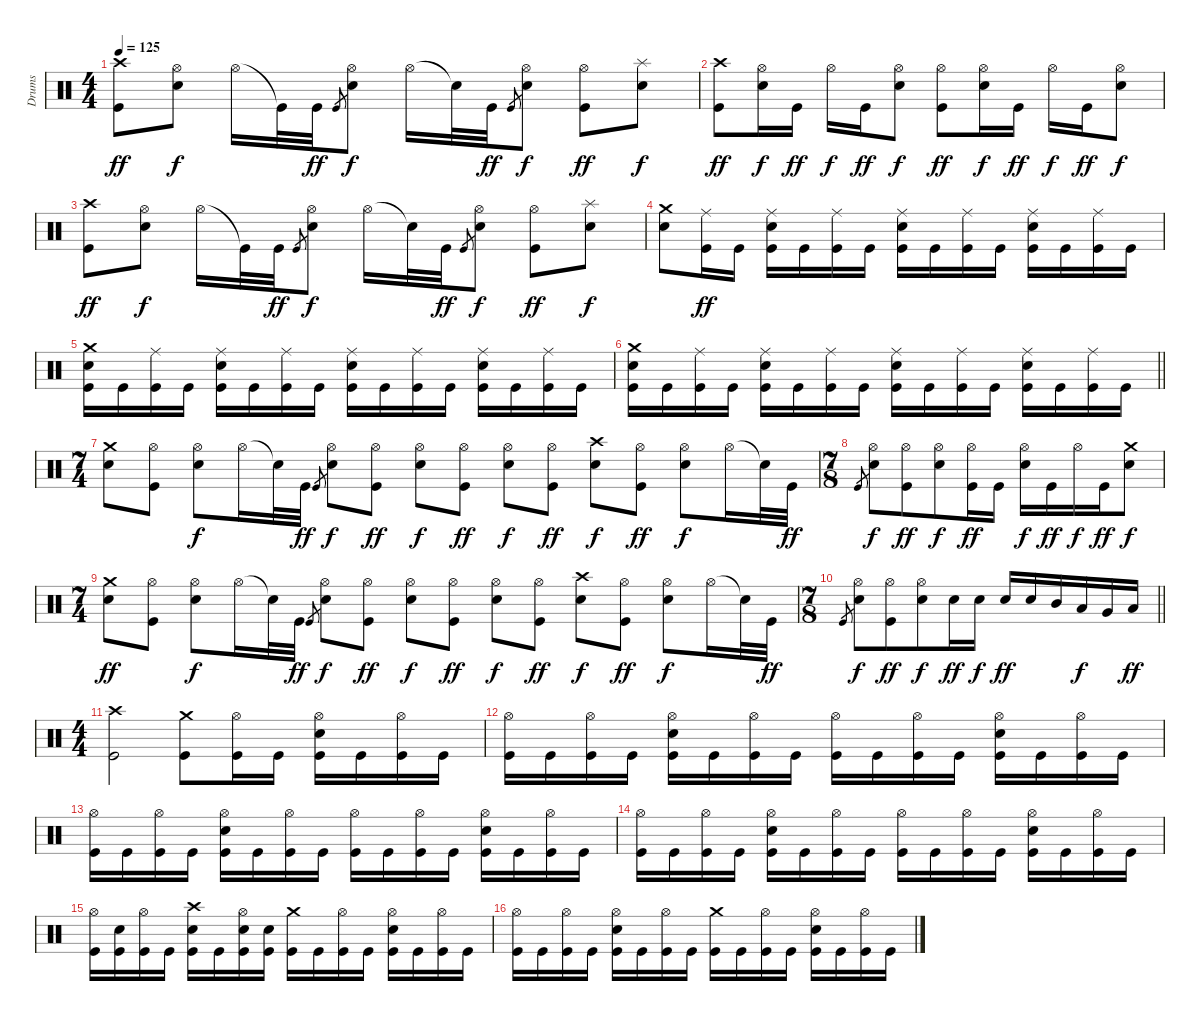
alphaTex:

\track ("Drums" "Drums") {instrument percussion}
\staff {score}
\articulation defaults
\ts (4 4)
\tempo 125
\clef neutral
\ks c
("Crash high (hit)" "Kick (hit)").8{dy ff} ("Hi-Hat (open)" "Snare (hit) 2").8{dy f} "Hi-Hat (open)".16 "Kick (hit)"{t}.32 "Kick (hit)".32{dy ff} "Kick (hit)".8{gr} ("Hi-Hat (open)" "Snare (hit) 2").8{dy f} "Hi-Hat (open)".16 "Snare (hit)"{t}.32 "Kick (hit)".32{dy ff} "Kick (hit)".8{gr} ("Hi-Hat (open)" "Snare (hit) 2").8{dy f} ("Hi-Hat (open)" "Kick (hit)").8{dy ff} ("Splash (hit)" "Snare (hit) 2").8{dy f} |
("Crash high (hit)" "Kick (hit)").8{dy ff} ("Hi-Hat (open)" "Snare (hit) 2").16{dy f} "Kick (hit)".16{dy ff} "Hi-Hat (open)".16{dy f} "Kick (hit)".16{dy ff} ("Hi-Hat (open)" "Snare (hit) 2").8{dy f} ("Hi-Hat (open)" "Kick (hit)").8{dy ff} ("Hi-Hat (open)" "Snare (hit) 2").16{dy f} "Kick (hit)".16{dy ff} "Hi-Hat (open)".16{dy f} "Kick (hit)".16{dy ff} ("Hi-Hat (open)" "Snare (hit) 2").8{dy f} |
("Crash high (hit)" "Kick (hit)").8{dy ff} ("Hi-Hat (open)" "Snare (hit) 2").8{dy f} "Hi-Hat (open)".16 "Kick (hit)"{t}.32 "Kick (hit)".32{dy ff} "Kick (hit)".8{gr} ("Hi-Hat (open)" "Snare (hit) 2").8{dy f} "Hi-Hat (open)".16 "Snare (hit)"{t}.32 "Kick (hit)".32{dy ff} "Kick (hit)".8{gr} ("Hi-Hat (open)" "Snare (hit) 2").8{dy f} ("Hi-Hat (open)" "Kick (hit)").8{dy ff} ("Splash (hit)" "Snare (hit) 2").8{dy f} |
("Crash medium (hit)" "Snare (hit) 2").8 ("Ride (middle)" "Kick (hit)").16{dy ff} "Kick (hit)".16 ("Ride (middle)" "Snare (hit) 2" "Kick (hit)").16 "Kick (hit)".16 ("Ride (middle)" "Kick (hit)").16 "Kick (hit)".16 ("Ride (middle)" "Snare (hit) 2" "Kick (hit)").16 "Kick (hit)".16 ("Ride (middle)" "Kick (hit)").16 "Kick (hit)".16 ("Ride (middle)" "Snare (hit) 2" "Kick (hit)").16 "Kick (hit)".16 ("Ride (middle)" "Kick (hit)").16 "Kick (hit)".16 |
("Crash medium (hit)" "Snare (hit) 2" "Kick (hit)").16 "Kick (hit)".16 ("Ride (middle)" "Kick (hit)").16 "Kick (hit)".16 ("Ride (middle)" "Snare (hit) 2" "Kick (hit)").16 "Kick (hit)".16 ("Ride (middle)" "Kick (hit)").16 "Kick (hit)".16 ("Ride (middle)" "Snare (hit) 2" "Kick (hit)").16 "Kick (hit)".16 ("Ride (middle)" "Kick (hit)").16 "Kick (hit)".16 ("Ride (middle)" "Snare (hit) 2" "Kick (hit)").16 "Kick (hit)".16 ("Ride (middle)" "Kick (hit)").16 "Kick (hit)".16 |
\barLineRight lightlight
("Crash medium (hit)" "Snare (hit) 2" "Kick (hit)").16 "Kick (hit)".16 ("Ride (middle)" "Kick (hit)").16 "Kick (hit)".16 ("Ride (middle)" "Snare (hit) 2" "Kick (hit)").16 "Kick (hit)".16 ("Ride (middle)" "Kick (hit)").16 "Kick (hit)".16 ("Ride (middle)" "Snare (hit) 2" "Kick (hit)").16 "Kick (hit)".16 ("Ride (middle)" "Kick (hit)").16 "Kick (hit)".16 ("Ride (middle)" "Snare (hit) 2" "Kick (hit)").16 "Kick (hit)".16 ("Ride (middle)" "Kick (hit)").16 "Kick (hit)".16 |
\ts (7 4)
("Crash medium (hit)" "Snare (hit) 2").8 ("Hi-Hat (open)" "Kick (hit)").8 ("Hi-Hat (open)" "Snare (hit) 2").8{dy f} "Hi-Hat (open)".16 "Snare (hit)"{t}.32 "Kick (hit)".32{dy ff} "Kick (hit)".8{gr} ("Hi-Hat (open)" "Snare (hit) 2").8{dy f} ("Hi-Hat (open)" "Kick (hit)").8{dy ff} ("Hi-Hat (open)" "Snare (hit) 2").8{dy f} ("Hi-Hat (open)" "Kick (hit)").8{dy ff} ("Hi-Hat (open)" "Snare (hit) 2").8{dy f} ("Hi-Hat (open)" "Kick (hit)").8{dy ff} ("Crash high (hit)" "Snare (hit) 2").8{dy f} ("Hi-Hat (open)" "Kick (hit)").8{dy ff} ("Hi-Hat (open)" "Snare (hit) 2").8{dy f} "Hi-Hat (open)".16 "Snare (hit)"{t}.32 "Kick (hit)".32{dy ff} |
\ts (7 8)
"Kick (hit)".8{gr} ("Hi-Hat (open)" "Snare (hit) 2").8{dy f} ("Hi-Hat (open)" "Kick (hit)").8{dy ff} ("Hi-Hat (open)" "Snare (hit) 2").8{dy f} ("Hi-Hat (open)" "Kick (hit)").16{dy ff} "Kick (hit)".16 ("Hi-Hat (open)" "Snare (hit) 2").16{dy f} "Kick (hit)".16{dy ff} "Hi-Hat (open)".16{dy f} "Kick (hit)".16{dy ff} ("Crash medium (hit)" "Snare (hit) 2").8{dy f} |
\ts (7 4)
("Crash medium (hit)" "Snare (hit) 2").8{dy ff} ("Hi-Hat (open)" "Kick (hit)").8 ("Hi-Hat (open)" "Snare (hit) 2").8{dy f} "Hi-Hat (open)".16 "Snare (hit)"{t}.32 "Kick (hit)".32{dy ff} "Kick (hit)".8{gr} ("Hi-Hat (open)" "Snare (hit) 2").8{dy f} ("Hi-Hat (open)" "Kick (hit)").8{dy ff} ("Hi-Hat (open)" "Snare (hit) 2").8{dy f} ("Hi-Hat (open)" "Kick (hit)").8{dy ff} ("Hi-Hat (open)" "Snare (hit) 2").8{dy f} ("Hi-Hat (open)" "Kick (hit)").8{dy ff} ("Crash high (hit)" "Snare (hit) 2").8{dy f} ("Hi-Hat (open)" "Kick (hit)").8{dy ff} ("Hi-Hat (open)" "Snare (hit) 2").8{dy f} "Hi-Hat (open)".16 "Snare (hit)"{t}.32 "Kick (hit)".32{dy ff} |
\ts (7 8)
\barLineRight lightlight "Kick (hit)".8{gr}
("Hi-Hat (open)" "Snare (hit) 2").8{dy f} ("Hi-Hat (open)" "Kick (hit)").8{dy ff} ("Hi-Hat (open)" "Snare (hit) 2").8{dy f} "Snare (hit) 2".16{dy ff} "Snare (hit) 2".16{dy f} "Snare (hit) 2".16{dy ff} "Snare (hit) 2".16 "Mid Tom (hit)".16 "Low Tom (hit)".16{dy f} "Very Low Tom (hit)".16 "Low Floor Tom (hit)".16{dy ff} |
\ts (4 4)
("Crash high (hit)" "Kick (hit)").2 ("Crash medium (hit)" "Kick (hit)").8 ("Hi-Hat (open)" "Kick (hit)").16 "Kick (hit)".16 ("Hi-Hat (open)" "Snare (hit) 2" "Kick (hit)").16 "Kick (hit)".16 ("Hi-Hat (open)" "Kick (hit)").16 "Kick (hit)".16 |
("Hi-Hat (open)" "Kick (hit)").16 "Kick (hit)".16 ("Hi-Hat (open)" "Kick (hit)").16 "Kick (hit)".16 ("Hi-Hat (open)" "Snare (hit) 2" "Kick (hit)").16 "Kick (hit)".16 ("Hi-Hat (open)" "Kick (hit)").16 "Kick (hit)".16 ("Hi-Hat (open)" "Kick (hit)").16 "Kick (hit)".16 ("Hi-Hat (open)" "Kick (hit)").16 "Kick (hit)".16 ("Hi-Hat (open)" "Snare (hit) 2" "Kick (hit)").16 "Kick (hit)".16 ("Hi-Hat (open)" "Kick (hit)").16 "Kick (hit)".16 |
("Hi-Hat (open)" "Kick (hit)").16 "Kick (hit)".16 ("Hi-Hat (open)" "Kick (hit)").16 "Kick (hit)".16 ("Hi-Hat (open)" "Snare (hit) 2" "Kick (hit)").16 "Kick (hit)".16 ("Hi-Hat (open)" "Kick (hit)").16 "Kick (hit)".16 ("Hi-Hat (open)" "Kick (hit)").16 "Kick (hit)".16 ("Hi-Hat (open)" "Kick (hit)").16 "Kick (hit)".16 ("Hi-Hat (open)" "Snare (hit) 2" "Kick (hit)").16 "Kick (hit)".16 ("Hi-Hat (open)" "Kick (hit)").16 "Kick (hit)".16 |
("Hi-Hat (open)" "Kick (hit)").16 "Kick (hit)".16 ("Hi-Hat (open)" "Kick (hit)").16 "Kick (hit)".16 ("Hi-Hat (open)" "Snare (hit) 2" "Kick (hit)").16 "Kick (hit)".16 ("Hi-Hat (open)" "Kick (hit)").16 "Kick (hit)".16 ("Hi-Hat (open)" "Kick (hit)").16 "Kick (hit)".16 ("Hi-Hat (open)" "Kick (hit)").16 "Kick (hit)".16 ("Hi-Hat (open)" "Snare (hit) 2" "Kick (hit)").16 "Kick (hit)".16 ("Hi-Hat (open)" "Kick (hit)").16 "Kick (hit)".16 |
("Hi-Hat (open)" "Kick (hit)").16 ("Snare (hit) 2" "Kick (hit)").16 ("Hi-Hat (open)" "Kick (hit)").16 "Kick (hit)".16 ("Crash high (hit)" "Snare (hit) 2" "Kick (hit)").16 "Kick (hit)".16 ("Hi-Hat (open)" "Snare (hit) 2" "Kick (hit)").16 ("Snare (hit) 2" "Kick (hit)").16 ("Crash medium (hit)" "Kick (hit)").16 "Kick (hit)".16 ("Hi-Hat (open)" "Kick (hit)").16 "Kick (hit)".16 ("Hi-Hat (open)" "Snare (hit) 2" "Kick (hit)").16 "Kick (hit)".16 ("Hi-Hat (open)" "Kick (hit)").16 "Kick (hit)".16 |
("Hi-Hat (open)" "Kick (hit)").16 "Kick (hit)".16 ("Hi-Hat (open)" "Kick (hit)").16 "Kick (hit)".16 ("Hi-Hat (open)" "Snare (hit) 2" "Kick (hit)").16 "Kick (hit)".16 ("Hi-Hat (open)" "Kick (hit)").16 "Kick (hit)".16 ("Crash medium (hit)" "Kick (hit)").16 "Kick (hit)".16 ("Hi-Hat (open)" "Kick (hit)").16 "Kick (hit)".16 ("Hi-Hat (open)" "Snare (hit) 2" "Kick (hit)").16 "Kick (hit)".16 ("Hi-Hat (open)" "Kick (hit)").16 "Kick (hit)".16
